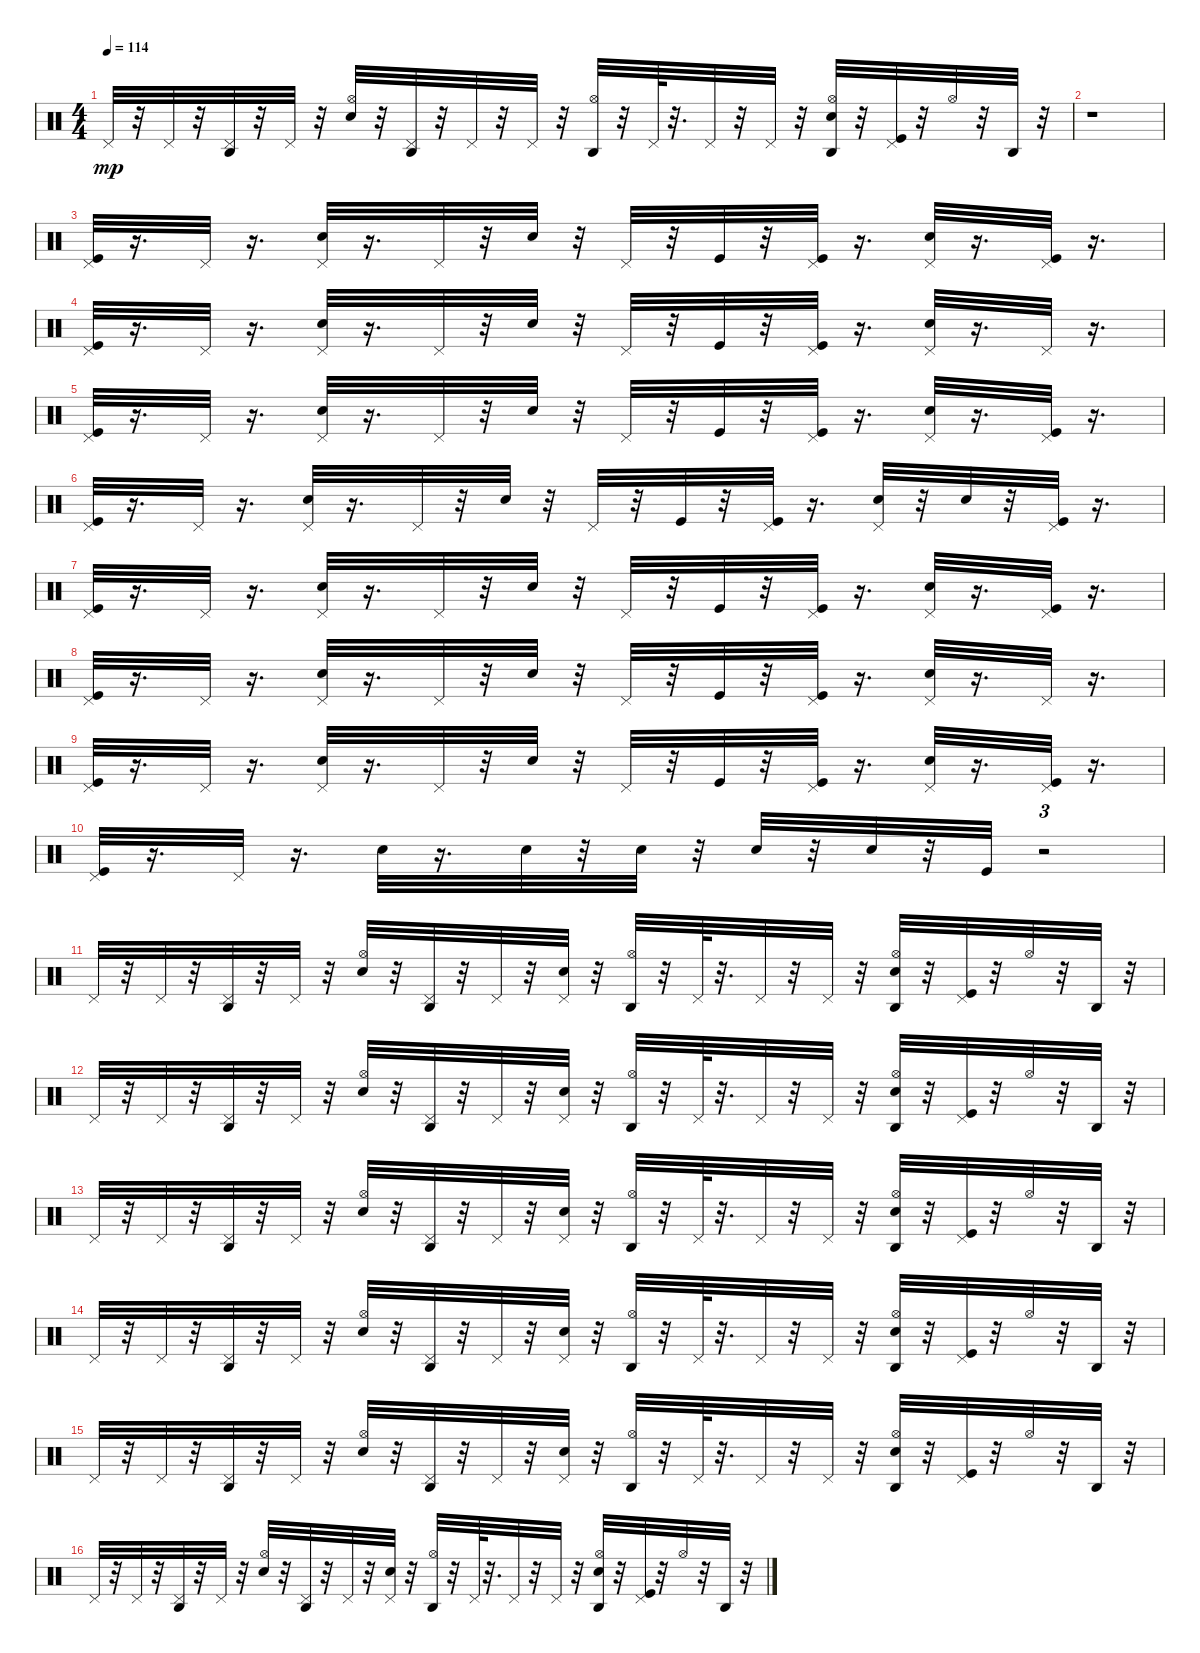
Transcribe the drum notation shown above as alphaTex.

\track "" {instrument percussion}
\staff {score}
\articulation defaults
\ts (4 4)
\tempo 114
\clef neutral
\ks c "Pedal Hi-Hat (hit)".32{dy mp}
r.32 "Pedal Hi-Hat (hit)".32 r.32 ("Agogo high (hit)" "Pedal Hi-Hat (hit)").32 r.32 "Pedal Hi-Hat (hit)".32 r.32 ("Hi-Hat (open)" "Electric Snare (hit)").32 r.32 ("Pedal Hi-Hat (hit)" "Agogo high (hit)").32 r.32 "Pedal Hi-Hat (hit)".32 r.32 "Pedal Hi-Hat (hit)".32 r.32 ("Agogo high (hit)" "Hi-Hat (open)").32 r.32 "Pedal Hi-Hat (hit)".64 r.32{d} "Pedal Hi-Hat (hit)".32 r.32 "Pedal Hi-Hat (hit)".32 r.32 ("Agogo high (hit)" "Hi-Hat (open)" "Electric Snare (hit)").32 r.32 ("Pedal Hi-Hat (hit)" "Kick (hit)").32 r.32 "Hi-Hat (open)".32 r.32 "Agogo high (hit)".32 r.32 |
r.1 |
("Kick (hit)" "Pedal Hi-Hat (hit)").32 r.16{d} "Pedal Hi-Hat (hit)".32 r.16{d} ("Pedal Hi-Hat (hit)" "Electric Snare (hit)").32 r.16{d} "Pedal Hi-Hat (hit)".32 r.32 "Snare (hit) 2".32 r.32 "Pedal Hi-Hat (hit)".32 r.32 "Kick (hit)".32 r.32 ("Pedal Hi-Hat (hit)" "Kick (hit)").32 r.16{d} ("Pedal Hi-Hat (hit)" "Electric Snare (hit)").32 r.16{d} ("Pedal Hi-Hat (hit)" "Kick (hit)").32 r.16{d} |
("Pedal Hi-Hat (hit)" "Kick (hit)").32 r.16{d} "Pedal Hi-Hat (hit)".32 r.16{d} ("Pedal Hi-Hat (hit)" "Electric Snare (hit)").32 r.16{d} "Pedal Hi-Hat (hit)".32 r.32 "Snare (hit) 2".32 r.32 "Pedal Hi-Hat (hit)".32 r.32 "Kick (hit)".32 r.32 ("Pedal Hi-Hat (hit)" "Kick (hit)").32 r.16{d} ("Pedal Hi-Hat (hit)" "Electric Snare (hit)").32 r.16{d} "Pedal Hi-Hat (hit)".32 r.16{d} |
("Kick (hit)" "Pedal Hi-Hat (hit)").32 r.16{d} "Pedal Hi-Hat (hit)".32 r.16{d} ("Pedal Hi-Hat (hit)" "Electric Snare (hit)").32 r.16{d} "Pedal Hi-Hat (hit)".32 r.32 "Snare (hit) 2".32 r.32 "Pedal Hi-Hat (hit)".32 r.32 "Kick (hit)".32 r.32 ("Pedal Hi-Hat (hit)" "Kick (hit)").32 r.16{d} ("Pedal Hi-Hat (hit)" "Electric Snare (hit)").32 r.16{d} ("Pedal Hi-Hat (hit)" "Kick (hit)").32 r.16{d} |
("Pedal Hi-Hat (hit)" "Kick (hit)").32 r.16{d} "Pedal Hi-Hat (hit)".32 r.16{d} ("Pedal Hi-Hat (hit)" "Electric Snare (hit)").32 r.16{d} "Pedal Hi-Hat (hit)".32 r.32 "Snare (hit) 2".32 r.32 "Pedal Hi-Hat (hit)".32 r.32 "Kick (hit)".32 r.32 ("Pedal Hi-Hat (hit)" "Kick (hit)").32 r.16{d} ("Pedal Hi-Hat (hit)" "Electric Snare (hit)").32 r.32 "Electric Snare (hit)".32 r.32 ("Kick (hit)" "Pedal Hi-Hat (hit)").32 r.16{d} |
("Kick (hit)" "Pedal Hi-Hat (hit)").32 r.16{d} "Pedal Hi-Hat (hit)".32 r.16{d} ("Pedal Hi-Hat (hit)" "Electric Snare (hit)").32 r.16{d} "Pedal Hi-Hat (hit)".32 r.32 "Snare (hit) 2".32 r.32 "Pedal Hi-Hat (hit)".32 r.32 "Kick (hit)".32 r.32 ("Pedal Hi-Hat (hit)" "Kick (hit)").32 r.16{d} ("Pedal Hi-Hat (hit)" "Electric Snare (hit)").32 r.16{d} ("Pedal Hi-Hat (hit)" "Kick (hit)").32 r.16{d} |
("Pedal Hi-Hat (hit)" "Kick (hit)").32 r.16{d} "Pedal Hi-Hat (hit)".32 r.16{d} ("Pedal Hi-Hat (hit)" "Electric Snare (hit)").32 r.16{d} "Pedal Hi-Hat (hit)".32 r.32 "Snare (hit) 2".32 r.32 "Pedal Hi-Hat (hit)".32 r.32 "Kick (hit)".32 r.32 ("Pedal Hi-Hat (hit)" "Kick (hit)").32 r.16{d} ("Pedal Hi-Hat (hit)" "Electric Snare (hit)").32 r.16{d} "Pedal Hi-Hat (hit)".32 r.16{d} |
("Kick (hit)" "Pedal Hi-Hat (hit)").32 r.16{d} "Pedal Hi-Hat (hit)".32 r.16{d} ("Pedal Hi-Hat (hit)" "Electric Snare (hit)").32 r.16{d} "Pedal Hi-Hat (hit)".32 r.32 "Snare (hit) 2".32 r.32 "Pedal Hi-Hat (hit)".32 r.32 "Kick (hit)".32 r.32 ("Pedal Hi-Hat (hit)" "Kick (hit)").32 r.16{d} ("Pedal Hi-Hat (hit)" "Electric Snare (hit)").32 r.16{d} ("Pedal Hi-Hat (hit)" "Kick (hit)").32 r.16{d} |
("Pedal Hi-Hat (hit)" "Kick (hit)").32 r.16{d} "Pedal Hi-Hat (hit)".32 r.16{d} "Electric Snare (hit)".32 r.16{d} "Electric Snare (hit)".32 r.32 "Electric Snare (hit)".32 r.32 "Electric Snare (hit)".32 r.32 "Electric Snare (hit)".32 r.32 "Kick (hit)".32 r.2{tu (3 2)} |
"Pedal Hi-Hat (hit)".32 r.32 "Pedal Hi-Hat (hit)".32 r.32 ("Agogo high (hit)" "Pedal Hi-Hat (hit)").32 r.32 "Pedal Hi-Hat (hit)".32 r.32 ("Hi-Hat (open)" "Electric Snare (hit)").32 r.32 ("Pedal Hi-Hat (hit)" "Agogo high (hit)").32 r.32 "Pedal Hi-Hat (hit)".32 r.32 ("Pedal Hi-Hat (hit)" "Snare (hit) 2").32 r.32 ("Hi-Hat (open)" "Agogo high (hit)").32 r.32 "Pedal Hi-Hat (hit)".64 r.32{d} "Pedal Hi-Hat (hit)".32 r.32 "Pedal Hi-Hat (hit)".32 r.32 ("Hi-Hat (open)" "Agogo high (hit)" "Electric Snare (hit)").32 r.32 ("Pedal Hi-Hat (hit)" "Kick (hit)").32 r.32 "Hi-Hat (open)".32 r.32 "Agogo high (hit)".32 r.32 |
"Pedal Hi-Hat (hit)".32 r.32 "Pedal Hi-Hat (hit)".32 r.32 ("Agogo high (hit)" "Pedal Hi-Hat (hit)").32 r.32 "Pedal Hi-Hat (hit)".32 r.32 ("Hi-Hat (open)" "Electric Snare (hit)").32 r.32 ("Pedal Hi-Hat (hit)" "Agogo high (hit)").32 r.32 "Pedal Hi-Hat (hit)".32 r.32 ("Pedal Hi-Hat (hit)" "Snare (hit) 2").32 r.32 ("Hi-Hat (open)" "Agogo high (hit)").32 r.32 "Pedal Hi-Hat (hit)".64 r.32{d} "Pedal Hi-Hat (hit)".32 r.32 "Pedal Hi-Hat (hit)".32 r.32 ("Hi-Hat (open)" "Agogo high (hit)" "Electric Snare (hit)").32 r.32 ("Pedal Hi-Hat (hit)" "Kick (hit)").32 r.32 "Hi-Hat (open)".32 r.32 "Agogo high (hit)".32 r.32 |
"Pedal Hi-Hat (hit)".32 r.32 "Pedal Hi-Hat (hit)".32 r.32 ("Agogo high (hit)" "Pedal Hi-Hat (hit)").32 r.32 "Pedal Hi-Hat (hit)".32 r.32 ("Hi-Hat (open)" "Electric Snare (hit)").32 r.32 ("Pedal Hi-Hat (hit)" "Agogo high (hit)").32 r.32 "Pedal Hi-Hat (hit)".32 r.32 ("Pedal Hi-Hat (hit)" "Snare (hit) 2").32 r.32 ("Hi-Hat (open)" "Agogo high (hit)").32 r.32 "Pedal Hi-Hat (hit)".64 r.32{d} "Pedal Hi-Hat (hit)".32 r.32 "Pedal Hi-Hat (hit)".32 r.32 ("Hi-Hat (open)" "Agogo high (hit)" "Electric Snare (hit)").32 r.32 ("Pedal Hi-Hat (hit)" "Kick (hit)").32 r.32 "Hi-Hat (open)".32 r.32 "Agogo high (hit)".32 r.32 |
"Pedal Hi-Hat (hit)".32 r.32 "Pedal Hi-Hat (hit)".32 r.32 ("Agogo high (hit)" "Pedal Hi-Hat (hit)").32 r.32 "Pedal Hi-Hat (hit)".32 r.32 ("Hi-Hat (open)" "Electric Snare (hit)").32 r.32 ("Pedal Hi-Hat (hit)" "Agogo high (hit)").32 r.32 "Pedal Hi-Hat (hit)".32 r.32 ("Pedal Hi-Hat (hit)" "Snare (hit) 2").32 r.32 ("Hi-Hat (open)" "Agogo high (hit)").32 r.32 "Pedal Hi-Hat (hit)".64 r.32{d} "Pedal Hi-Hat (hit)".32 r.32 "Pedal Hi-Hat (hit)".32 r.32 ("Hi-Hat (open)" "Agogo high (hit)" "Electric Snare (hit)").32 r.32 ("Pedal Hi-Hat (hit)" "Kick (hit)").32 r.32 "Hi-Hat (open)".32 r.32 "Agogo high (hit)".32 r.32 |
"Pedal Hi-Hat (hit)".32 r.32 "Pedal Hi-Hat (hit)".32 r.32 ("Agogo high (hit)" "Pedal Hi-Hat (hit)").32 r.32 "Pedal Hi-Hat (hit)".32 r.32 ("Hi-Hat (open)" "Electric Snare (hit)").32 r.32 ("Pedal Hi-Hat (hit)" "Agogo high (hit)").32 r.32 "Pedal Hi-Hat (hit)".32 r.32 ("Pedal Hi-Hat (hit)" "Snare (hit) 2").32 r.32 ("Hi-Hat (open)" "Agogo high (hit)").32 r.32 "Pedal Hi-Hat (hit)".64 r.32{d} "Pedal Hi-Hat (hit)".32 r.32 "Pedal Hi-Hat (hit)".32 r.32 ("Hi-Hat (open)" "Agogo high (hit)" "Electric Snare (hit)").32 r.32 ("Pedal Hi-Hat (hit)" "Kick (hit)").32 r.32 "Hi-Hat (open)".32 r.32 "Agogo high (hit)".32 r.32 |
"Pedal Hi-Hat (hit)".32 r.32 "Pedal Hi-Hat (hit)".32 r.32 ("Agogo high (hit)" "Pedal Hi-Hat (hit)").32 r.32 "Pedal Hi-Hat (hit)".32 r.32 ("Hi-Hat (open)" "Electric Snare (hit)").32 r.32 ("Pedal Hi-Hat (hit)" "Agogo high (hit)").32 r.32 "Pedal Hi-Hat (hit)".32 r.32 ("Pedal Hi-Hat (hit)" "Snare (hit) 2").32 r.32 ("Hi-Hat (open)" "Agogo high (hit)").32 r.32 "Pedal Hi-Hat (hit)".64 r.32{d} "Pedal Hi-Hat (hit)".32 r.32 "Pedal Hi-Hat (hit)".32 r.32 ("Hi-Hat (open)" "Agogo high (hit)" "Electric Snare (hit)").32 r.32 ("Pedal Hi-Hat (hit)" "Kick (hit)").32 r.32 "Hi-Hat (open)".32 r.32 "Agogo high (hit)".32 r.32
